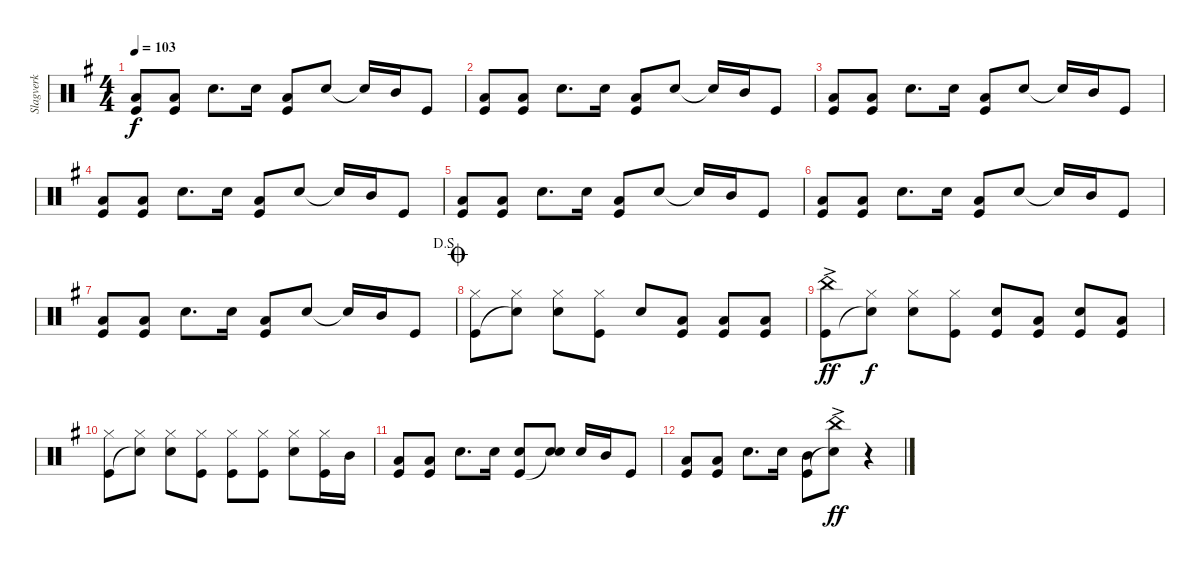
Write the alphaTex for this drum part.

\track ("Slagverk" "Slagverk") {instrument percussion}
\staff {score}
\articulation defaults
\ts (4 4)
\tempo 103
\clef neutral
\ks g
("Kick (hit)" "Low Tom (hit)").8{dy f} ("Kick (hit)" "Low Tom (hit)").8 "Snare (hit) 2".8{d} "Snare (hit) 2".16 ("Kick (hit)" "Low Tom (hit)").8 "Snare (hit) 2".8 "Snare (hit)"{t}.16 "Mid Tom (hit)".16 "Kick (hit)".8 |
("Kick (hit)" "Low Tom (hit)").8 ("Kick (hit)" "Low Tom (hit)").8 "Snare (hit) 2".8{d} "Snare (hit) 2".16 ("Kick (hit)" "Low Tom (hit)").8 "Snare (hit) 2".8 "Snare (hit)"{t}.16 "Mid Tom (hit)".16 "Kick (hit)".8 |
("Kick (hit)" "Low Tom (hit)").8 ("Kick (hit)" "Low Tom (hit)").8 "Snare (hit) 2".8{d} "Snare (hit) 2".16 ("Kick (hit)" "Low Tom (hit)").8 "Snare (hit) 2".8 "Snare (hit)"{t}.16 "Mid Tom (hit)".16 "Kick (hit)".8 |
("Kick (hit)" "Low Tom (hit)").8 ("Kick (hit)" "Low Tom (hit)").8 "Snare (hit) 2".8{d} "Snare (hit) 2".16 ("Kick (hit)" "Low Tom (hit)").8 "Snare (hit) 2".8 "Snare (hit)"{t}.16 "Mid Tom (hit)".16 "Kick (hit)".8 |
("Kick (hit)" "Low Tom (hit)").8 ("Kick (hit)" "Low Tom (hit)").8 "Snare (hit) 2".8{d} "Snare (hit) 2".16 ("Kick (hit)" "Low Tom (hit)").8 "Snare (hit) 2".8 "Snare (hit)"{t}.16 "Mid Tom (hit)".16 "Kick (hit)".8 |
("Kick (hit)" "Low Tom (hit)").8 ("Kick (hit)" "Low Tom (hit)").8 "Snare (hit) 2".8{d} "Snare (hit) 2".16 ("Kick (hit)" "Low Tom (hit)").8 "Snare (hit) 2".8 "Snare (hit)"{t}.16 "Mid Tom (hit)".16 "Kick (hit)".8 |
\jump dalsegno
("Kick (hit)" "Low Tom (hit)").8 ("Kick (hit)" "Low Tom (hit)").8 "Snare (hit) 2".8{d} "Snare (hit) 2".16 ("Kick (hit)" "Low Tom (hit)").8 "Snare (hit) 2".8 "Snare (hit)"{t}.16 "Mid Tom (hit)".16 "Kick (hit)".8 |
\jump coda
("Kick (hit)" "Hi-Hat (closed)").8 ("Snare (hit)"{t} "Hi-Hat (closed)").8 ("Snare (hit) 2" "Hi-Hat (closed)").8 ("Kick (hit)" "Hi-Hat (closed)").8 "Snare (hit) 2".8 ("Kick (hit)" "Low Tom (hit)").8 ("Kick (hit)" "Low Tom (hit)").8 ("Kick (hit)" "Low Tom (hit)").8 |
("Kick (hit)" "China (hit)"{ac}).8{dy ff} ("Snare (hit)"{t} "Hi-Hat (closed)").8{dy f} ("Snare (hit) 2" "Hi-Hat (closed)").8 ("Kick (hit)" "Hi-Hat (closed)").8 ("Kick (hit)" "Snare (hit) 2").8 ("Kick (hit)" "Low Tom (hit)").8 ("Kick (hit)" "Snare (hit) 2").8 ("Kick (hit)" "Low Tom (hit)").8 |
("Kick (hit)" "Hi-Hat (closed)").8 ("Snare (hit)"{t} "Hi-Hat (closed)").8 ("Snare (hit) 2" "Hi-Hat (closed)").8 ("Kick (hit)" "Hi-Hat (closed)").8 ("Kick (hit)" "Hi-Hat (closed)").8 ("Kick (hit)" "Hi-Hat (closed)").8 ("Snare (hit) 2" "Hi-Hat (closed)").8 ("Kick (hit)" "Hi-Hat (closed)").16 "Mid Tom (hit)".16 |
("Kick (hit)" "Low Tom (hit)").8 ("Kick (hit)" "Low Tom (hit)").8 "Snare (hit) 2".8{d} "Snare (hit) 2".16 ("Kick (hit)" "Snare (hit) 2").8 ("Snare (hit)"{t} "Snare (hit) 2").8 "Snare (hit) 2".16 "Mid Tom (hit)".16 "Kick (hit)".8 |
("Kick (hit)" "Low Tom (hit)").8 ("Kick (hit)" "Low Tom (hit)").8 "Snare (hit) 2".8{d} "Snare (hit) 2".16 ("Kick (hit)" "Mid Tom (hit)").8 ("Snare (hit)"{t} "China (hit)"{ac}).8{dy ff} r.4
